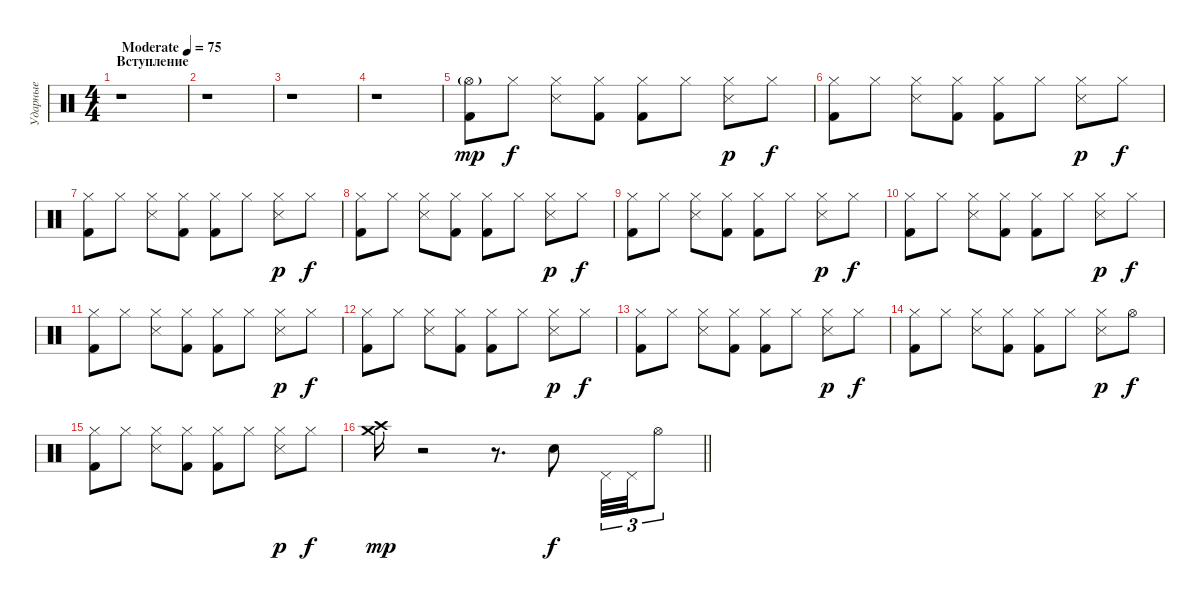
\track ("Ударные" "Ударные") {instrument percussion}
\staff {score}
\articulation defaults
\ts (4 4)
\section ("" "Вступление")
\tempo (75 "Moderate")
\clef neutral
\ks c
r.1{dy mp} |
r.1 |
r.1 |
r.1 |
("Hi-Hat (open)"{g} "Kick (hit) 2").8 "Hi-Hat (closed)".8{dy f} ("Snare (side stick) 3" "Hi-Hat (closed)").8 ("Hi-Hat (closed)" "Kick (hit) 2").8 ("Hi-Hat (closed)" "Kick (hit) 2").8 "Hi-Hat (closed)".8 ("Snare (side stick) 3" "Hi-Hat (closed)").8{dy p} "Hi-Hat (closed)".8{dy f} |
("Hi-Hat (closed)" "Kick (hit) 2").8 "Hi-Hat (closed)".8 ("Snare (side stick) 3" "Hi-Hat (closed)").8 ("Hi-Hat (closed)" "Kick (hit) 2").8 ("Hi-Hat (closed)" "Kick (hit) 2").8 "Hi-Hat (closed)".8 ("Snare (side stick) 3" "Hi-Hat (closed)").8{dy p} "Hi-Hat (closed)".8{dy f} |
("Hi-Hat (closed)" "Kick (hit) 2").8 "Hi-Hat (closed)".8 ("Snare (side stick) 3" "Hi-Hat (closed)").8 ("Hi-Hat (closed)" "Kick (hit) 2").8 ("Hi-Hat (closed)" "Kick (hit) 2").8 "Hi-Hat (closed)".8 ("Snare (side stick) 3" "Hi-Hat (closed)").8{dy p} "Hi-Hat (closed)".8{dy f} |
("Hi-Hat (closed)" "Kick (hit) 2").8 "Hi-Hat (closed)".8 ("Snare (side stick) 3" "Hi-Hat (closed)").8 ("Hi-Hat (closed)" "Kick (hit) 2").8 ("Hi-Hat (closed)" "Kick (hit) 2").8 "Hi-Hat (closed)".8 ("Snare (side stick) 3" "Hi-Hat (closed)").8{dy p} "Hi-Hat (closed)".8{dy f} |
("Hi-Hat (closed)" "Kick (hit) 2").8 "Hi-Hat (closed)".8 ("Snare (side stick) 3" "Hi-Hat (closed)").8 ("Hi-Hat (closed)" "Kick (hit) 2").8 ("Hi-Hat (closed)" "Kick (hit) 2").8 "Hi-Hat (closed)".8 ("Snare (side stick) 3" "Hi-Hat (closed)").8{dy p} "Hi-Hat (closed)".8{dy f} |
("Hi-Hat (closed)" "Kick (hit) 2").8 "Hi-Hat (closed)".8 ("Snare (side stick) 3" "Hi-Hat (closed)").8 ("Hi-Hat (closed)" "Kick (hit) 2").8 ("Hi-Hat (closed)" "Kick (hit) 2").8 "Hi-Hat (closed)".8 ("Snare (side stick) 3" "Hi-Hat (closed)").8{dy p} "Hi-Hat (closed)".8{dy f} |
("Hi-Hat (closed)" "Kick (hit) 2").8 "Hi-Hat (closed)".8 ("Snare (side stick) 3" "Hi-Hat (closed)").8 ("Hi-Hat (closed)" "Kick (hit) 2").8 ("Hi-Hat (closed)" "Kick (hit) 2").8 "Hi-Hat (closed)".8 ("Snare (side stick) 3" "Hi-Hat (closed)").8{dy p} "Hi-Hat (closed)".8{dy f} |
("Hi-Hat (closed)" "Kick (hit) 2").8 "Hi-Hat (closed)".8 ("Snare (side stick) 3" "Hi-Hat (closed)").8 ("Hi-Hat (closed)" "Kick (hit) 2").8 ("Hi-Hat (closed)" "Kick (hit) 2").8 "Hi-Hat (closed)".8 ("Snare (side stick) 3" "Hi-Hat (closed)").8{dy p} "Hi-Hat (closed)".8{dy f} |
("Hi-Hat (closed)" "Kick (hit) 2").8 "Hi-Hat (closed)".8 ("Snare (side stick) 3" "Hi-Hat (closed)").8 ("Hi-Hat (closed)" "Kick (hit) 2").8 ("Hi-Hat (closed)" "Kick (hit) 2").8 "Hi-Hat (closed)".8 ("Snare (side stick) 3" "Hi-Hat (closed)").8{dy p} "Hi-Hat (closed)".8{dy f} |
("Hi-Hat (closed)" "Kick (hit) 2").8 "Hi-Hat (closed)".8 ("Snare (side stick) 3" "Hi-Hat (closed)").8 ("Hi-Hat (closed)" "Kick (hit) 2").8 ("Hi-Hat (closed)" "Kick (hit) 2").8 "Hi-Hat (closed)".8 ("Snare (side stick) 3" "Hi-Hat (closed)").8{dy p} "Hi-Hat (open)".8{dy f} |
("Hi-Hat (closed)" "Kick (hit) 2").8 "Hi-Hat (closed)".8 ("Snare (side stick) 3" "Hi-Hat (closed)").8 ("Hi-Hat (closed)" "Kick (hit) 2").8 ("Hi-Hat (closed)" "Kick (hit) 2").8 "Hi-Hat (closed)".8 ("Snare (side stick) 3" "Hi-Hat (closed)").8{dy p} "Hi-Hat (closed)".8{dy f} |
\barLineRight lightlight
("Crash high (hit)" "Crash medium (hit)").16{dy mp} r.2 r.8{d} "Electric Snare (hit)".8{dy f} "Pedal Hi-Hat (hit)".32{tu (3 2)} "Pedal Hi-Hat (hit)".32{tu (3 2)} "Hi-Hat (open)".8{tu (3 2)}
